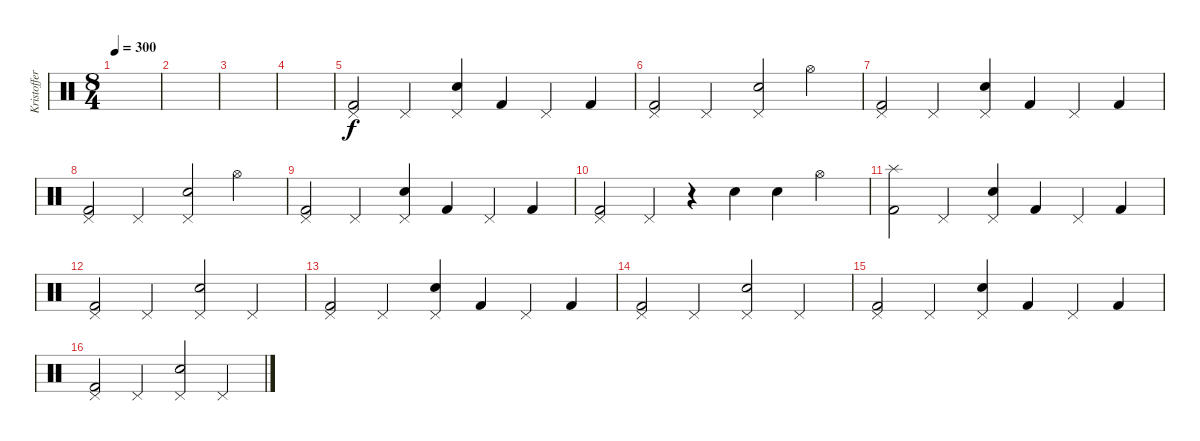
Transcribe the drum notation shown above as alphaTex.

\track ("Kristoffer Söderström" "Kristoffer") {instrument percussion}
\staff {score}
\articulation defaults
\ts (8 4)
\tempo 300
\clef neutral
\ks c
|
|
|
|
("Pedal Hi-Hat (hit)" "Kick (hit) 2").2 "Pedal Hi-Hat (hit)".2 ("Snare (hit) 2" "Pedal Hi-Hat (hit)").4 "Kick (hit) 2".4 "Pedal Hi-Hat (hit)".4 "Kick (hit) 2".4 |
("Pedal Hi-Hat (hit)" "Kick (hit) 2").2 "Pedal Hi-Hat (hit)".2 ("Snare (hit) 2" "Pedal Hi-Hat (hit)").2 "Hi-Hat (open)".2 |
("Pedal Hi-Hat (hit)" "Kick (hit) 2").2 "Pedal Hi-Hat (hit)".2 ("Snare (hit) 2" "Pedal Hi-Hat (hit)").4 "Kick (hit) 2".4 "Pedal Hi-Hat (hit)".4 "Kick (hit) 2".4 |
("Pedal Hi-Hat (hit)" "Kick (hit) 2").2 "Pedal Hi-Hat (hit)".2 ("Snare (hit) 2" "Pedal Hi-Hat (hit)").2 "Hi-Hat (open)".2 |
("Pedal Hi-Hat (hit)" "Kick (hit) 2").2 "Pedal Hi-Hat (hit)".2 ("Snare (hit) 2" "Pedal Hi-Hat (hit)").4 "Kick (hit) 2".4 "Pedal Hi-Hat (hit)".4 "Kick (hit) 2".4 |
("Pedal Hi-Hat (hit)" "Kick (hit) 2").2 "Pedal Hi-Hat (hit)".4 r.4 "Snare (hit) 2".4 "Snare (hit) 2".4 "Hi-Hat (open)".2 |
("Splash (hit)" "Kick (hit) 2").2 "Pedal Hi-Hat (hit)".2 ("Snare (hit) 2" "Pedal Hi-Hat (hit)").4 "Kick (hit) 2".4 "Pedal Hi-Hat (hit)".4 "Kick (hit) 2".4 |
("Pedal Hi-Hat (hit)" "Kick (hit) 2").2 "Pedal Hi-Hat (hit)".2 ("Snare (hit) 2" "Pedal Hi-Hat (hit)").2 "Pedal Hi-Hat (hit)".2 |
("Pedal Hi-Hat (hit)" "Kick (hit) 2").2 "Pedal Hi-Hat (hit)".2 ("Snare (hit) 2" "Pedal Hi-Hat (hit)").4 "Kick (hit) 2".4 "Pedal Hi-Hat (hit)".4 "Kick (hit) 2".4 |
("Pedal Hi-Hat (hit)" "Kick (hit) 2").2 "Pedal Hi-Hat (hit)".2 ("Snare (hit) 2" "Pedal Hi-Hat (hit)").2 "Pedal Hi-Hat (hit)".2 |
("Pedal Hi-Hat (hit)" "Kick (hit) 2").2 "Pedal Hi-Hat (hit)".2 ("Snare (hit) 2" "Pedal Hi-Hat (hit)").4 "Kick (hit) 2".4 "Pedal Hi-Hat (hit)".4 "Kick (hit) 2".4 |
("Pedal Hi-Hat (hit)" "Kick (hit) 2").2 "Pedal Hi-Hat (hit)".2 ("Snare (hit) 2" "Pedal Hi-Hat (hit)").2 "Pedal Hi-Hat (hit)".2
